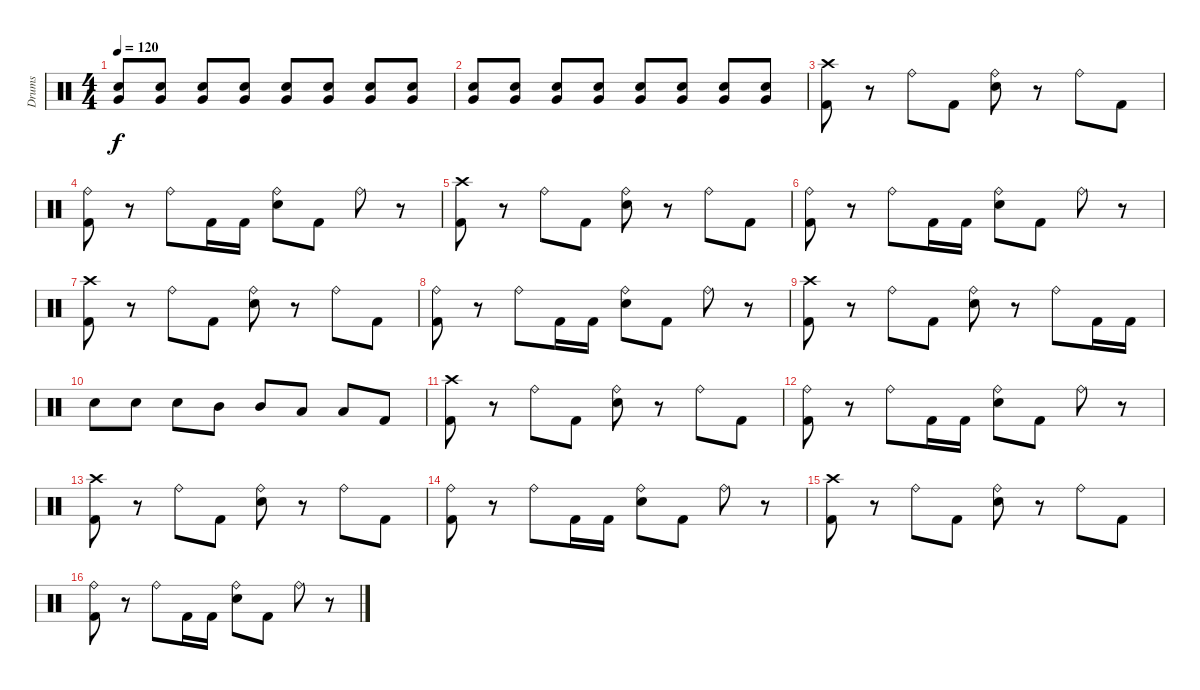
\track ("Drums" "Drums") {instrument percussion}
\staff {score}
\articulation defaults
\ts (4 4)
\tempo 120
\clef neutral
\ks c
("Very Low Tom (hit)" "Electric Snare (hit)").8{dy f} ("Very Low Tom (hit)" "Electric Snare (hit)").8 ("Very Low Tom (hit)" "Electric Snare (hit)").8 ("Very Low Tom (hit)" "Electric Snare (hit)").8 ("Very Low Tom (hit)" "Electric Snare (hit)").8 ("Very Low Tom (hit)" "Electric Snare (hit)").8 ("Very Low Tom (hit)" "Electric Snare (hit)").8 ("Very Low Tom (hit)" "Electric Snare (hit)").8 |
("Very Low Tom (hit)" "Electric Snare (hit)").8 ("Very Low Tom (hit)" "Electric Snare (hit)").8 ("Very Low Tom (hit)" "Electric Snare (hit)").8 ("Very Low Tom (hit)" "Electric Snare (hit)").8 ("Very Low Tom (hit)" "Electric Snare (hit)").8 ("Very Low Tom (hit)" "Electric Snare (hit)").8 ("Very Low Tom (hit)" "Electric Snare (hit)").8 ("Very Low Tom (hit)" "Electric Snare (hit)").8 |
("Crash high (hit)" "Kick (hit) 2").8 r.8 "Ride (bell)".8 "Kick (hit) 2".8 ("Ride (bell)" "Electric Snare (hit)").8 r.8 "Ride (bell)".8 "Kick (hit) 2".8 |
("Ride (bell)" "Kick (hit) 2").8 r.8 "Ride (bell)".8 "Kick (hit) 2".16 "Kick (hit) 2".16 ("Ride (bell)" "Electric Snare (hit)").8 "Kick (hit) 2".8 "Ride (bell)".8 r.8 |
("Crash high (hit)" "Kick (hit) 2").8 r.8 "Ride (bell)".8 "Kick (hit) 2".8 ("Ride (bell)" "Electric Snare (hit)").8 r.8 "Ride (bell)".8 "Kick (hit) 2".8 |
("Ride (bell)" "Kick (hit) 2").8 r.8 "Ride (bell)".8 "Kick (hit) 2".16 "Kick (hit) 2".16 ("Ride (bell)" "Electric Snare (hit)").8 "Kick (hit) 2".8 "Ride (bell)".8 r.8 |
("Crash high (hit)" "Kick (hit) 2").8 r.8 "Ride (bell)".8 "Kick (hit) 2".8 ("Ride (bell)" "Electric Snare (hit)").8 r.8 "Ride (bell)".8 "Kick (hit) 2".8 |
("Ride (bell)" "Kick (hit) 2").8 r.8 "Ride (bell)".8 "Kick (hit) 2".16 "Kick (hit) 2".16 ("Ride (bell)" "Electric Snare (hit)").8 "Kick (hit) 2".8 "Ride (bell)".8 r.8 |
("Crash high (hit)" "Kick (hit) 2").8 r.8 "Ride (bell)".8 "Kick (hit) 2".8 ("Ride (bell)" "Electric Snare (hit)").8 r.8 "Ride (bell)".8 "Kick (hit) 2".16 "Kick (hit) 2".16 |
"Electric Snare (hit)".8 "Electric Snare (hit)".8 "Electric Snare (hit)".8 "Mid Tom (hit)".8 "Mid Tom (hit)".8 "Low Tom (hit)".8 "Low Tom (hit)".8 "Kick (hit) 2".8 |
("Crash high (hit)" "Kick (hit) 2").8 r.8 "Ride (bell)".8 "Kick (hit) 2".8 ("Ride (bell)" "Electric Snare (hit)").8 r.8 "Ride (bell)".8 "Kick (hit) 2".8 |
("Ride (bell)" "Kick (hit) 2").8 r.8 "Ride (bell)".8 "Kick (hit) 2".16 "Kick (hit) 2".16 ("Ride (bell)" "Electric Snare (hit)").8 "Kick (hit) 2".8 "Ride (bell)".8 r.8 |
("Crash high (hit)" "Kick (hit) 2").8 r.8 "Ride (bell)".8 "Kick (hit) 2".8 ("Ride (bell)" "Electric Snare (hit)").8 r.8 "Ride (bell)".8 "Kick (hit) 2".8 |
("Ride (bell)" "Kick (hit) 2").8 r.8 "Ride (bell)".8 "Kick (hit) 2".16 "Kick (hit) 2".16 ("Ride (bell)" "Electric Snare (hit)").8 "Kick (hit) 2".8 "Ride (bell)".8 r.8 |
("Crash high (hit)" "Kick (hit) 2").8 r.8 "Ride (bell)".8 "Kick (hit) 2".8 ("Ride (bell)" "Electric Snare (hit)").8 r.8 "Ride (bell)".8 "Kick (hit) 2".8 |
("Ride (bell)" "Kick (hit) 2").8 r.8 "Ride (bell)".8 "Kick (hit) 2".16 "Kick (hit) 2".16 ("Ride (bell)" "Electric Snare (hit)").8 "Kick (hit) 2".8 "Ride (bell)".8 r.8
